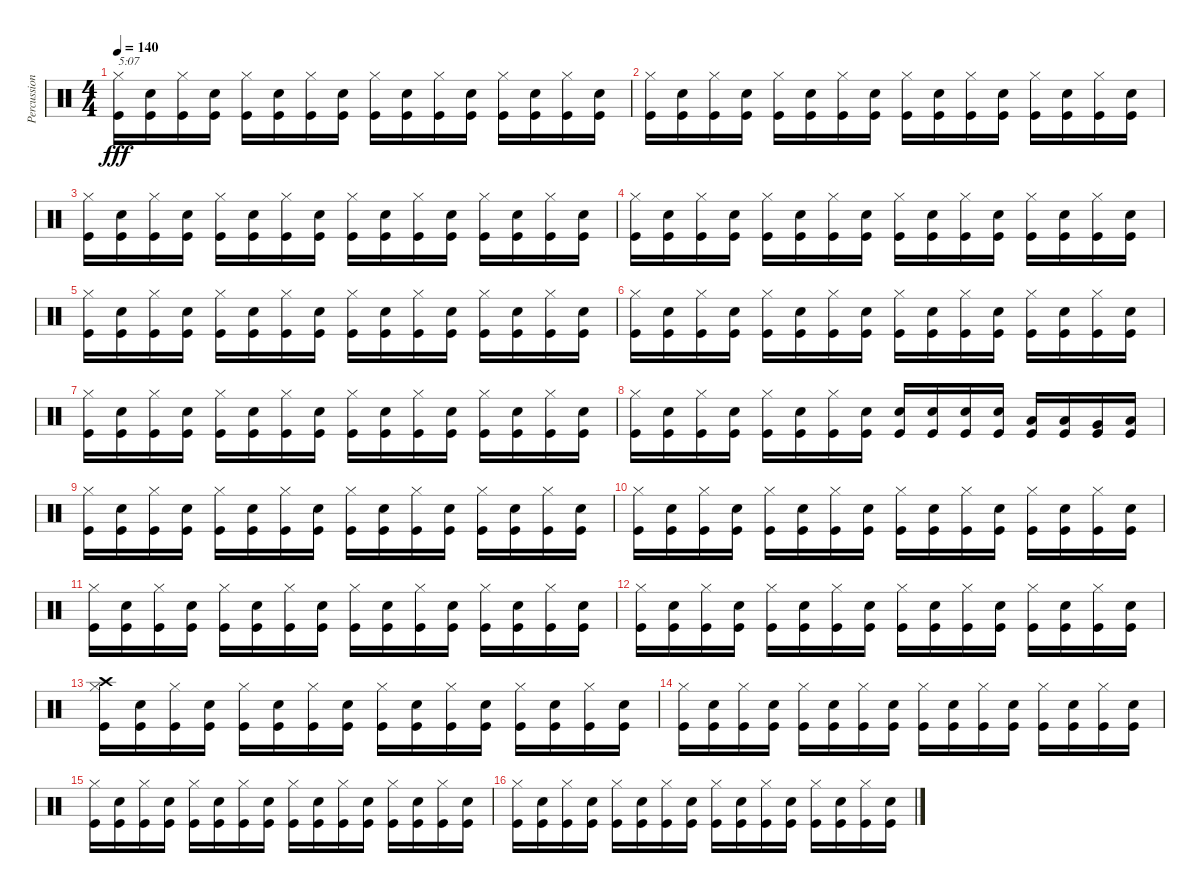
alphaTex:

\track ("Percussion" "Percussion") {instrument percussion}
\staff {score}
\articulation defaults
\ts (4 4)
\tempo 140
\clef neutral
\ks c
("Hi-Hat (closed)" "Kick (hit)").16{txt "5:07" dy fff} ("Snare (hit) 2" "Kick (hit)").16 ("Hi-Hat (closed)" "Kick (hit)").16 ("Snare (hit) 2" "Kick (hit)").16 ("Hi-Hat (closed)" "Kick (hit)").16 ("Snare (hit) 2" "Kick (hit)").16 ("Hi-Hat (closed)" "Kick (hit)").16 ("Snare (hit) 2" "Kick (hit)").16 ("Hi-Hat (closed)" "Kick (hit)").16 ("Snare (hit) 2" "Kick (hit)").16 ("Hi-Hat (closed)" "Kick (hit)").16 ("Snare (hit) 2" "Kick (hit)").16 ("Hi-Hat (closed)" "Kick (hit)").16 ("Snare (hit) 2" "Kick (hit)").16 ("Hi-Hat (closed)" "Kick (hit)").16 ("Snare (hit) 2" "Kick (hit)").16 |
("Hi-Hat (closed)" "Kick (hit)").16 ("Snare (hit) 2" "Kick (hit)").16 ("Hi-Hat (closed)" "Kick (hit)").16 ("Snare (hit) 2" "Kick (hit)").16 ("Hi-Hat (closed)" "Kick (hit)").16 ("Snare (hit) 2" "Kick (hit)").16 ("Hi-Hat (closed)" "Kick (hit)").16 ("Snare (hit) 2" "Kick (hit)").16 ("Hi-Hat (closed)" "Kick (hit)").16 ("Snare (hit) 2" "Kick (hit)").16 ("Hi-Hat (closed)" "Kick (hit)").16 ("Snare (hit) 2" "Kick (hit)").16 ("Hi-Hat (closed)" "Kick (hit)").16 ("Snare (hit) 2" "Kick (hit)").16 ("Hi-Hat (closed)" "Kick (hit)").16 ("Snare (hit) 2" "Kick (hit)").16 |
("Hi-Hat (closed)" "Kick (hit)").16 ("Snare (hit) 2" "Kick (hit)").16 ("Hi-Hat (closed)" "Kick (hit)").16 ("Snare (hit) 2" "Kick (hit)").16 ("Hi-Hat (closed)" "Kick (hit)").16 ("Snare (hit) 2" "Kick (hit)").16 ("Hi-Hat (closed)" "Kick (hit)").16 ("Snare (hit) 2" "Kick (hit)").16 ("Hi-Hat (closed)" "Kick (hit)").16 ("Snare (hit) 2" "Kick (hit)").16 ("Hi-Hat (closed)" "Kick (hit)").16 ("Snare (hit) 2" "Kick (hit)").16 ("Hi-Hat (closed)" "Kick (hit)").16 ("Snare (hit) 2" "Kick (hit)").16 ("Hi-Hat (closed)" "Kick (hit)").16 ("Snare (hit) 2" "Kick (hit)").16 |
("Hi-Hat (closed)" "Kick (hit)").16 ("Snare (hit) 2" "Kick (hit)").16 ("Hi-Hat (closed)" "Kick (hit)").16 ("Snare (hit) 2" "Kick (hit)").16 ("Hi-Hat (closed)" "Kick (hit)").16 ("Snare (hit) 2" "Kick (hit)").16 ("Hi-Hat (closed)" "Kick (hit)").16 ("Snare (hit) 2" "Kick (hit)").16 ("Hi-Hat (closed)" "Kick (hit)").16 ("Snare (hit) 2" "Kick (hit)").16 ("Hi-Hat (closed)" "Kick (hit)").16 ("Snare (hit) 2" "Kick (hit)").16 ("Hi-Hat (closed)" "Kick (hit)").16 ("Snare (hit) 2" "Kick (hit)").16 ("Hi-Hat (closed)" "Kick (hit)").16 ("Snare (hit) 2" "Kick (hit)").16 |
("Hi-Hat (closed)" "Kick (hit)").16 ("Snare (hit) 2" "Kick (hit)").16 ("Hi-Hat (closed)" "Kick (hit)").16 ("Snare (hit) 2" "Kick (hit)").16 ("Hi-Hat (closed)" "Kick (hit)").16 ("Snare (hit) 2" "Kick (hit)").16 ("Hi-Hat (closed)" "Kick (hit)").16 ("Snare (hit) 2" "Kick (hit)").16 ("Hi-Hat (closed)" "Kick (hit)").16 ("Snare (hit) 2" "Kick (hit)").16 ("Hi-Hat (closed)" "Kick (hit)").16 ("Snare (hit) 2" "Kick (hit)").16 ("Hi-Hat (closed)" "Kick (hit)").16 ("Snare (hit) 2" "Kick (hit)").16 ("Hi-Hat (closed)" "Kick (hit)").16 ("Snare (hit) 2" "Kick (hit)").16 |
("Hi-Hat (closed)" "Kick (hit)").16 ("Snare (hit) 2" "Kick (hit)").16 ("Hi-Hat (closed)" "Kick (hit)").16 ("Snare (hit) 2" "Kick (hit)").16 ("Hi-Hat (closed)" "Kick (hit)").16 ("Snare (hit) 2" "Kick (hit)").16 ("Hi-Hat (closed)" "Kick (hit)").16 ("Snare (hit) 2" "Kick (hit)").16 ("Hi-Hat (closed)" "Kick (hit)").16 ("Snare (hit) 2" "Kick (hit)").16 ("Hi-Hat (closed)" "Kick (hit)").16 ("Snare (hit) 2" "Kick (hit)").16 ("Hi-Hat (closed)" "Kick (hit)").16 ("Snare (hit) 2" "Kick (hit)").16 ("Hi-Hat (closed)" "Kick (hit)").16 ("Snare (hit) 2" "Kick (hit)").16 |
("Hi-Hat (closed)" "Kick (hit)").16 ("Snare (hit) 2" "Kick (hit)").16 ("Hi-Hat (closed)" "Kick (hit)").16 ("Snare (hit) 2" "Kick (hit)").16 ("Hi-Hat (closed)" "Kick (hit)").16 ("Snare (hit) 2" "Kick (hit)").16 ("Hi-Hat (closed)" "Kick (hit)").16 ("Snare (hit) 2" "Kick (hit)").16 ("Hi-Hat (closed)" "Kick (hit)").16 ("Snare (hit) 2" "Kick (hit)").16 ("Hi-Hat (closed)" "Kick (hit)").16 ("Snare (hit) 2" "Kick (hit)").16 ("Hi-Hat (closed)" "Kick (hit)").16 ("Snare (hit) 2" "Kick (hit)").16 ("Hi-Hat (closed)" "Kick (hit)").16 ("Snare (hit) 2" "Kick (hit)").16 |
("Hi-Hat (closed)" "Kick (hit)").16 ("Snare (hit) 2" "Kick (hit)").16 ("Hi-Hat (closed)" "Kick (hit)").16 ("Snare (hit) 2" "Kick (hit)").16 ("Hi-Hat (closed)" "Kick (hit)").16 ("Snare (hit) 2" "Kick (hit)").16 ("Hi-Hat (closed)" "Kick (hit)").16 ("Snare (hit) 2" "Kick (hit)").16 ("Snare (hit) 2" "Kick (hit)").16 ("Snare (hit) 2" "Kick (hit)").16 ("Snare (hit) 2" "Kick (hit)").16 ("Snare (hit) 2" "Kick (hit)").16 ("Low Tom (hit)" "Kick (hit)").16 ("Low Tom (hit)" "Kick (hit)").16 ("Very Low Tom (hit)" "Kick (hit)").16 ("Low Floor Tom (hit)" "Kick (hit)").16 |
("Hi-Hat (closed)" "Kick (hit)").16 ("Snare (hit) 2" "Kick (hit)").16 ("Hi-Hat (closed)" "Kick (hit)").16 ("Snare (hit) 2" "Kick (hit)").16 ("Hi-Hat (closed)" "Kick (hit)").16 ("Snare (hit) 2" "Kick (hit)").16 ("Hi-Hat (closed)" "Kick (hit)").16 ("Snare (hit) 2" "Kick (hit)").16 ("Hi-Hat (closed)" "Kick (hit)").16 ("Snare (hit) 2" "Kick (hit)").16 ("Hi-Hat (closed)" "Kick (hit)").16 ("Snare (hit) 2" "Kick (hit)").16 ("Hi-Hat (closed)" "Kick (hit)").16 ("Snare (hit) 2" "Kick (hit)").16 ("Hi-Hat (closed)" "Kick (hit)").16 ("Snare (hit) 2" "Kick (hit)").16 |
("Hi-Hat (closed)" "Kick (hit)").16 ("Snare (hit) 2" "Kick (hit)").16 ("Hi-Hat (closed)" "Kick (hit)").16 ("Snare (hit) 2" "Kick (hit)").16 ("Hi-Hat (closed)" "Kick (hit)").16 ("Snare (hit) 2" "Kick (hit)").16 ("Hi-Hat (closed)" "Kick (hit)").16 ("Snare (hit) 2" "Kick (hit)").16 ("Hi-Hat (closed)" "Kick (hit)").16 ("Snare (hit) 2" "Kick (hit)").16 ("Hi-Hat (closed)" "Kick (hit)").16 ("Snare (hit) 2" "Kick (hit)").16 ("Hi-Hat (closed)" "Kick (hit)").16 ("Snare (hit) 2" "Kick (hit)").16 ("Hi-Hat (closed)" "Kick (hit)").16 ("Snare (hit) 2" "Kick (hit)").16 |
("Hi-Hat (closed)" "Kick (hit)").16 ("Snare (hit) 2" "Kick (hit)").16 ("Hi-Hat (closed)" "Kick (hit)").16 ("Snare (hit) 2" "Kick (hit)").16 ("Hi-Hat (closed)" "Kick (hit)").16 ("Snare (hit) 2" "Kick (hit)").16 ("Hi-Hat (closed)" "Kick (hit)").16 ("Snare (hit) 2" "Kick (hit)").16 ("Hi-Hat (closed)" "Kick (hit)").16 ("Snare (hit) 2" "Kick (hit)").16 ("Hi-Hat (closed)" "Kick (hit)").16 ("Snare (hit) 2" "Kick (hit)").16 ("Hi-Hat (closed)" "Kick (hit)").16 ("Snare (hit) 2" "Kick (hit)").16 ("Hi-Hat (closed)" "Kick (hit)").16 ("Snare (hit) 2" "Kick (hit)").16 |
("Hi-Hat (closed)" "Kick (hit)").16 ("Snare (hit) 2" "Kick (hit)").16 ("Hi-Hat (closed)" "Kick (hit)").16 ("Snare (hit) 2" "Kick (hit)").16 ("Hi-Hat (closed)" "Kick (hit)").16 ("Snare (hit) 2" "Kick (hit)").16 ("Hi-Hat (closed)" "Kick (hit)").16 ("Snare (hit) 2" "Kick (hit)").16 ("Hi-Hat (closed)" "Kick (hit)").16 ("Snare (hit) 2" "Kick (hit)").16 ("Hi-Hat (closed)" "Kick (hit)").16 ("Snare (hit) 2" "Kick (hit)").16 ("Hi-Hat (closed)" "Kick (hit)").16 ("Snare (hit) 2" "Kick (hit)").16 ("Hi-Hat (closed)" "Kick (hit)").16 ("Snare (hit) 2" "Kick (hit)").16 |
("Crash high (hit)" "Hi-Hat (closed)" "Kick (hit)").16 ("Snare (hit) 2" "Kick (hit)").16 ("Hi-Hat (closed)" "Kick (hit)").16 ("Snare (hit) 2" "Kick (hit)").16 ("Hi-Hat (closed)" "Kick (hit)").16 ("Snare (hit) 2" "Kick (hit)").16 ("Hi-Hat (closed)" "Kick (hit)").16 ("Snare (hit) 2" "Kick (hit)").16 ("Hi-Hat (closed)" "Kick (hit)").16 ("Snare (hit) 2" "Kick (hit)").16 ("Hi-Hat (closed)" "Kick (hit)").16 ("Snare (hit) 2" "Kick (hit)").16 ("Hi-Hat (closed)" "Kick (hit)").16 ("Snare (hit) 2" "Kick (hit)").16 ("Hi-Hat (closed)" "Kick (hit)").16 ("Snare (hit) 2" "Kick (hit)").16 |
("Hi-Hat (closed)" "Kick (hit)").16 ("Snare (hit) 2" "Kick (hit)").16 ("Hi-Hat (closed)" "Kick (hit)").16 ("Snare (hit) 2" "Kick (hit)").16 ("Hi-Hat (closed)" "Kick (hit)").16 ("Snare (hit) 2" "Kick (hit)").16 ("Hi-Hat (closed)" "Kick (hit)").16 ("Snare (hit) 2" "Kick (hit)").16 ("Hi-Hat (closed)" "Kick (hit)").16 ("Snare (hit) 2" "Kick (hit)").16 ("Hi-Hat (closed)" "Kick (hit)").16 ("Snare (hit) 2" "Kick (hit)").16 ("Hi-Hat (closed)" "Kick (hit)").16 ("Snare (hit) 2" "Kick (hit)").16 ("Hi-Hat (closed)" "Kick (hit)").16 ("Snare (hit) 2" "Kick (hit)").16 |
("Hi-Hat (closed)" "Kick (hit)").16 ("Snare (hit) 2" "Kick (hit)").16 ("Hi-Hat (closed)" "Kick (hit)").16 ("Snare (hit) 2" "Kick (hit)").16 ("Hi-Hat (closed)" "Kick (hit)").16 ("Snare (hit) 2" "Kick (hit)").16 ("Hi-Hat (closed)" "Kick (hit)").16 ("Snare (hit) 2" "Kick (hit)").16 ("Hi-Hat (closed)" "Kick (hit)").16 ("Snare (hit) 2" "Kick (hit)").16 ("Hi-Hat (closed)" "Kick (hit)").16 ("Snare (hit) 2" "Kick (hit)").16 ("Hi-Hat (closed)" "Kick (hit)").16 ("Snare (hit) 2" "Kick (hit)").16 ("Hi-Hat (closed)" "Kick (hit)").16 ("Snare (hit) 2" "Kick (hit)").16 |
("Hi-Hat (closed)" "Kick (hit)").16 ("Snare (hit) 2" "Kick (hit)").16 ("Hi-Hat (closed)" "Kick (hit)").16 ("Snare (hit) 2" "Kick (hit)").16 ("Hi-Hat (closed)" "Kick (hit)").16 ("Snare (hit) 2" "Kick (hit)").16 ("Hi-Hat (closed)" "Kick (hit)").16 ("Snare (hit) 2" "Kick (hit)").16 ("Hi-Hat (closed)" "Kick (hit)").16 ("Snare (hit) 2" "Kick (hit)").16 ("Hi-Hat (closed)" "Kick (hit)").16 ("Snare (hit) 2" "Kick (hit)").16 ("Hi-Hat (closed)" "Kick (hit)").16 ("Snare (hit) 2" "Kick (hit)").16 ("Hi-Hat (closed)" "Kick (hit)").16 ("Snare (hit) 2" "Kick (hit)").16
